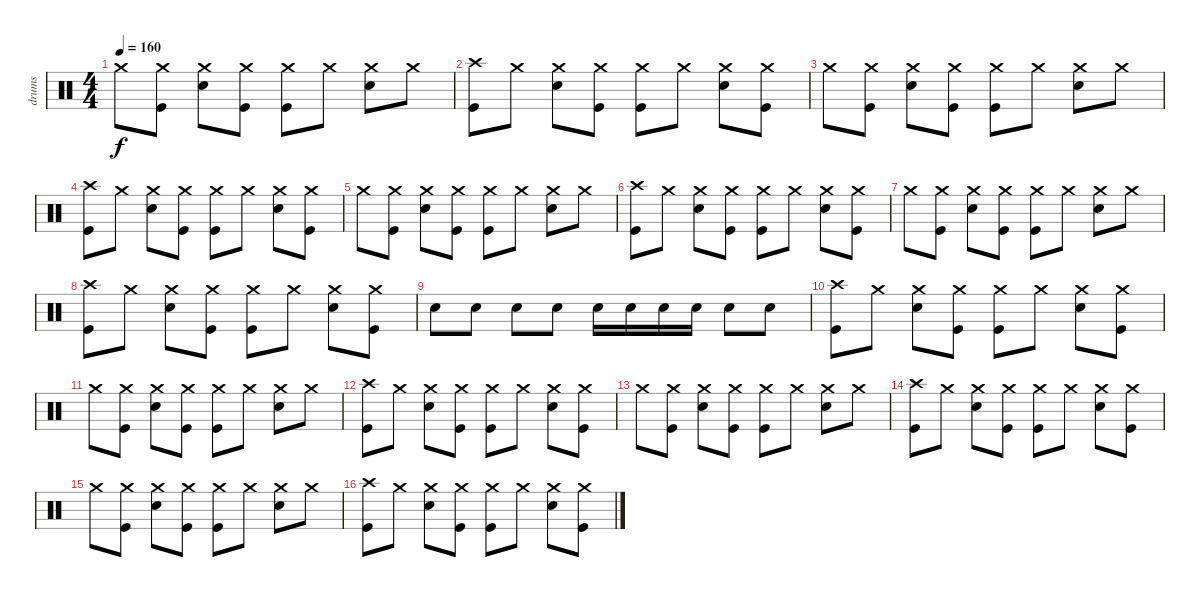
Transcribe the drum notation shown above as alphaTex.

\track ("drums" "drums") {instrument percussion}
\staff {score}
\articulation defaults
\ts (4 4)
\tempo 160
\clef neutral
\ks c "Crash medium (hit)".8{dy f}
("Crash medium (hit)" "Kick (hit)").8 ("Crash medium (hit)" "Snare (hit) 2").8 ("Crash medium (hit)" "Kick (hit)").8 ("Crash medium (hit)" "Kick (hit)").8 "Crash medium (hit)".8 ("Crash medium (hit)" "Snare (hit) 2").8 "Crash medium (hit)".8 |
("Crash high (hit)" "Kick (hit)").8 "Crash medium (hit)".8 ("Crash medium (hit)" "Snare (hit) 2").8 ("Crash medium (hit)" "Kick (hit)").8 ("Crash medium (hit)" "Kick (hit)").8 "Crash medium (hit)".8 ("Crash medium (hit)" "Snare (hit) 2").8 ("Crash medium (hit)" "Kick (hit)").8 |
"Crash medium (hit)".8 ("Crash medium (hit)" "Kick (hit)").8 ("Crash medium (hit)" "Snare (hit) 2").8 ("Crash medium (hit)" "Kick (hit)").8 ("Crash medium (hit)" "Kick (hit)").8 "Crash medium (hit)".8 ("Crash medium (hit)" "Snare (hit) 2").8 "Crash medium (hit)".8 |
("Crash high (hit)" "Kick (hit)").8 "Crash medium (hit)".8 ("Crash medium (hit)" "Snare (hit) 2").8 ("Crash medium (hit)" "Kick (hit)").8 ("Crash medium (hit)" "Kick (hit)").8 "Crash medium (hit)".8 ("Crash medium (hit)" "Snare (hit) 2").8 ("Crash medium (hit)" "Kick (hit)").8 |
"Crash medium (hit)".8 ("Crash medium (hit)" "Kick (hit)").8 ("Crash medium (hit)" "Snare (hit) 2").8 ("Crash medium (hit)" "Kick (hit)").8 ("Crash medium (hit)" "Kick (hit)").8 "Crash medium (hit)".8 ("Crash medium (hit)" "Snare (hit) 2").8 "Crash medium (hit)".8 |
("Crash high (hit)" "Kick (hit)").8 "Crash medium (hit)".8 ("Crash medium (hit)" "Snare (hit) 2").8 ("Crash medium (hit)" "Kick (hit)").8 ("Crash medium (hit)" "Kick (hit)").8 "Crash medium (hit)".8 ("Crash medium (hit)" "Snare (hit) 2").8 ("Crash medium (hit)" "Kick (hit)").8 |
"Crash medium (hit)".8 ("Crash medium (hit)" "Kick (hit)").8 ("Crash medium (hit)" "Snare (hit) 2").8 ("Crash medium (hit)" "Kick (hit)").8 ("Crash medium (hit)" "Kick (hit)").8 "Crash medium (hit)".8 ("Crash medium (hit)" "Snare (hit) 2").8 "Crash medium (hit)".8 |
("Crash high (hit)" "Kick (hit)").8 "Crash medium (hit)".8 ("Crash medium (hit)" "Snare (hit) 2").8 ("Crash medium (hit)" "Kick (hit)").8 ("Crash medium (hit)" "Kick (hit)").8 "Crash medium (hit)".8 ("Crash medium (hit)" "Snare (hit) 2").8 ("Crash medium (hit)" "Kick (hit)").8 |
"Electric Snare (hit)".8 "Electric Snare (hit)".8 "Electric Snare (hit)".8 "Electric Snare (hit)".8 "Electric Snare (hit)".16 "Electric Snare (hit)".16 "Electric Snare (hit)".16 "Electric Snare (hit)".16 "Electric Snare (hit)".8 "Electric Snare (hit)".8 |
("Crash high (hit)" "Kick (hit)").8 "Crash medium (hit)".8 ("Crash medium (hit)" "Snare (hit) 2").8 ("Crash medium (hit)" "Kick (hit)").8 ("Crash medium (hit)" "Kick (hit)").8 "Crash medium (hit)".8 ("Crash medium (hit)" "Snare (hit) 2").8 ("Crash medium (hit)" "Kick (hit)").8 |
"Crash medium (hit)".8 ("Crash medium (hit)" "Kick (hit)").8 ("Crash medium (hit)" "Snare (hit) 2").8 ("Crash medium (hit)" "Kick (hit)").8 ("Crash medium (hit)" "Kick (hit)").8 "Crash medium (hit)".8 ("Crash medium (hit)" "Snare (hit) 2").8 "Crash medium (hit)".8 |
("Crash high (hit)" "Kick (hit)").8 "Crash medium (hit)".8 ("Crash medium (hit)" "Snare (hit) 2").8 ("Crash medium (hit)" "Kick (hit)").8 ("Crash medium (hit)" "Kick (hit)").8 "Crash medium (hit)".8 ("Crash medium (hit)" "Snare (hit) 2").8 ("Crash medium (hit)" "Kick (hit)").8 |
"Crash medium (hit)".8 ("Crash medium (hit)" "Kick (hit)").8 ("Crash medium (hit)" "Snare (hit) 2").8 ("Crash medium (hit)" "Kick (hit)").8 ("Crash medium (hit)" "Kick (hit)").8 "Crash medium (hit)".8 ("Crash medium (hit)" "Snare (hit) 2").8 "Crash medium (hit)".8 |
("Crash high (hit)" "Kick (hit)").8 "Crash medium (hit)".8 ("Crash medium (hit)" "Snare (hit) 2").8 ("Crash medium (hit)" "Kick (hit)").8 ("Crash medium (hit)" "Kick (hit)").8 "Crash medium (hit)".8 ("Crash medium (hit)" "Snare (hit) 2").8 ("Crash medium (hit)" "Kick (hit)").8 |
"Crash medium (hit)".8 ("Crash medium (hit)" "Kick (hit)").8 ("Crash medium (hit)" "Snare (hit) 2").8 ("Crash medium (hit)" "Kick (hit)").8 ("Crash medium (hit)" "Kick (hit)").8 "Crash medium (hit)".8 ("Crash medium (hit)" "Snare (hit) 2").8 "Crash medium (hit)".8 |
("Crash high (hit)" "Kick (hit)").8 "Crash medium (hit)".8 ("Crash medium (hit)" "Snare (hit) 2").8 ("Crash medium (hit)" "Kick (hit)").8 ("Crash medium (hit)" "Kick (hit)").8 "Crash medium (hit)".8 ("Crash medium (hit)" "Snare (hit) 2").8 ("Crash medium (hit)" "Kick (hit)").8
